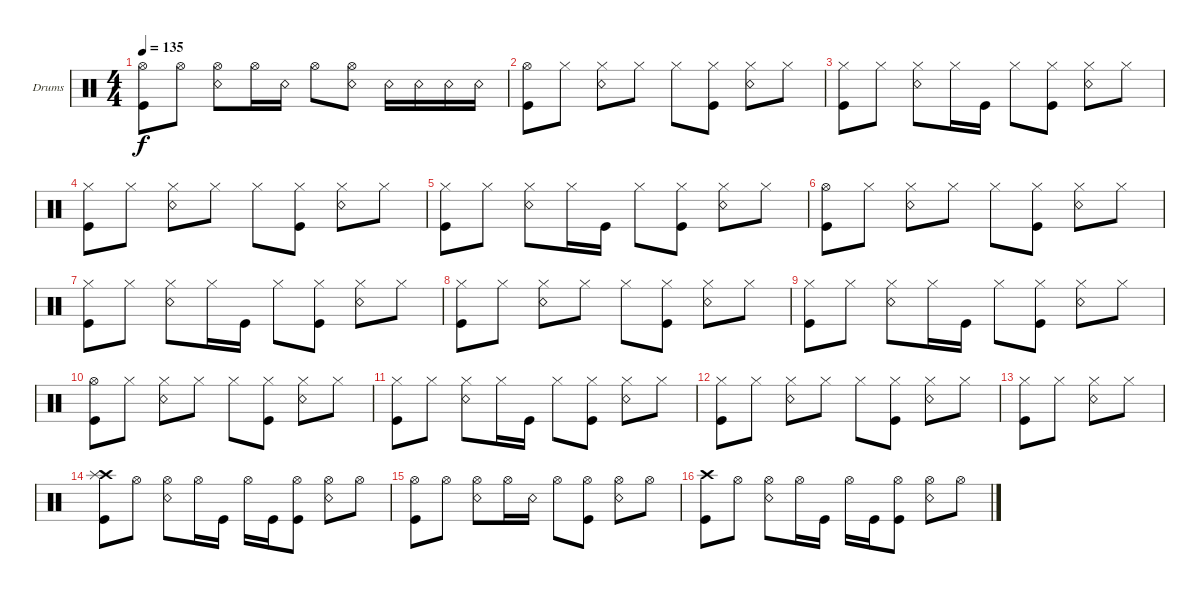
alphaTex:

\defaultSystemsLayout 4
\bracketExtendMode groupsimilarinstruments
\firstSystemTrackNameOrientation horizontal
\otherSystemsTrackNameOrientation horizontal
\track ("Drumkit" "Drums") {instrument percussion}
\staff {score}
\articulation defaults
\ts (4 4)
\tempo 135
\clef neutral
\scale
0.333333
\ks c
("Kick (hit)" "Hi-Hat (open)").8{dy f} "Hi-Hat (open)".8 ("Snare (rim shot)" "Hi-Hat (open)").8 "Hi-Hat (open)".16 "Snare (rim shot)".16 "Hi-Hat (open)".8 ("Hi-Hat (open)" "Snare (rim shot)").8 "Snare (rim shot)".16 "Snare (rim shot)".16 "Snare (rim shot)".16 "Snare (rim shot)".16 |
\scale
0.333333 ("Kick (hit)" "Hi-Hat (open)").8 "Hi-Hat (closed)".8 ("Hi-Hat (closed)" "Snare (rim shot)").8 "Hi-Hat (closed)".8 "Hi-Hat (closed)".8 ("Hi-Hat (closed)" "Kick (hit)").8 ("Hi-Hat (closed)" "Snare (rim shot)").8 "Hi-Hat (closed)".8 |
\scale
0.333333 ("Hi-Hat (closed)" "Kick (hit)").8 "Hi-Hat (closed)".8 ("Hi-Hat (closed)" "Snare (rim shot)").8 "Hi-Hat (closed)".16 "Kick (hit)".16 "Hi-Hat (closed)".8 ("Kick (hit)" "Hi-Hat (closed)").8 ("Snare (rim shot)" "Hi-Hat (closed)").8 "Hi-Hat (closed)".8 |
\scale
0.333333 ("Kick (hit)" "Hi-Hat (closed)").8 "Hi-Hat (closed)".8 ("Hi-Hat (closed)" "Snare (rim shot)").8 "Hi-Hat (closed)".8 "Hi-Hat (closed)".8 ("Hi-Hat (closed)" "Kick (hit)").8 ("Hi-Hat (closed)" "Snare (rim shot)").8 "Hi-Hat (closed)".8 |
\scale
0.333333 ("Hi-Hat (closed)" "Kick (hit)").8 "Hi-Hat (closed)".8 ("Hi-Hat (closed)" "Snare (rim shot)").8 "Hi-Hat (closed)".16 "Kick (hit)".16 "Hi-Hat (closed)".8 ("Kick (hit)" "Hi-Hat (closed)").8 ("Snare (rim shot)" "Hi-Hat (closed)").8 "Hi-Hat (closed)".8 |
\scale
0.333333 ("Kick (hit)" "Hi-Hat (open)").8 "Hi-Hat (closed)".8 ("Hi-Hat (closed)" "Snare (rim shot)").8 "Hi-Hat (closed)".8 "Hi-Hat (closed)".8 ("Hi-Hat (closed)" "Kick (hit)").8 ("Hi-Hat (closed)" "Snare (rim shot)").8 "Hi-Hat (closed)".8 |
\scale
0.333333 ("Hi-Hat (closed)" "Kick (hit)").8 "Hi-Hat (closed)".8 ("Hi-Hat (closed)" "Snare (rim shot)").8 "Hi-Hat (closed)".16 "Kick (hit)".16 "Hi-Hat (closed)".8 ("Kick (hit)" "Hi-Hat (closed)").8 ("Snare (rim shot)" "Hi-Hat (closed)").8 "Hi-Hat (closed)".8 |
\scale
0.333333 ("Kick (hit)" "Hi-Hat (closed)").8 "Hi-Hat (closed)".8 ("Hi-Hat (closed)" "Snare (rim shot)").8 "Hi-Hat (closed)".8 "Hi-Hat (closed)".8 ("Hi-Hat (closed)" "Kick (hit)").8 ("Hi-Hat (closed)" "Snare (rim shot)").8 "Hi-Hat (closed)".8 |
\scale
0.333333 ("Hi-Hat (closed)" "Kick (hit)").8 "Hi-Hat (closed)".8 ("Hi-Hat (closed)" "Snare (rim shot)").8 "Hi-Hat (closed)".16 "Kick (hit)".16 "Hi-Hat (closed)".8 ("Kick (hit)" "Hi-Hat (closed)").8 ("Snare (rim shot)" "Hi-Hat (closed)").8 "Hi-Hat (closed)".8 |
\scale
0.333333 ("Kick (hit)" "Hi-Hat (open)").8 "Hi-Hat (closed)".8 ("Hi-Hat (closed)" "Snare (rim shot)").8 "Hi-Hat (closed)".8 "Hi-Hat (closed)".8 ("Hi-Hat (closed)" "Kick (hit)").8 ("Hi-Hat (closed)" "Snare (rim shot)").8 "Hi-Hat (closed)".8 |
\scale
0.333333 ("Hi-Hat (closed)" "Kick (hit)").8 "Hi-Hat (closed)".8 ("Hi-Hat (closed)" "Snare (rim shot)").8 "Hi-Hat (closed)".16 "Kick (hit)".16 "Hi-Hat (closed)".8 ("Kick (hit)" "Hi-Hat (closed)").8 ("Snare (rim shot)" "Hi-Hat (closed)").8 "Hi-Hat (closed)".8 |
\scale
0.333333 ("Kick (hit)" "Hi-Hat (closed)").8 "Hi-Hat (closed)".8 ("Hi-Hat (closed)" "Snare (rim shot)").8 "Hi-Hat (closed)".8 "Hi-Hat (closed)".8 ("Hi-Hat (closed)" "Kick (hit)").8 ("Hi-Hat (closed)" "Snare (rim shot)").8 "Hi-Hat (closed)".8 |
\scale
0.333333 ("Hi-Hat (closed)" "Kick (hit)").8 "Hi-Hat (closed)".8 ("Hi-Hat (closed)" "Snare (rim shot)").8 "Hi-Hat (closed)".8 |
\scale
0.333333 ("Kick (hit)" "Crash high (hit)" "Splash (hit)").8 "Hi-Hat (open)".8 ("Snare (rim shot)" "Hi-Hat (open)").8 "Hi-Hat (open)".16 "Kick (hit)".16 "Hi-Hat (open)".16 "Kick (hit)".16 ("Kick (hit)" "Hi-Hat (open)").8 ("Snare (rim shot)" "Hi-Hat (open)").8 "Hi-Hat (open)".8 |
\scale
0.333333 ("Kick (hit)" "Hi-Hat (open)").8 "Hi-Hat (open)".8 ("Snare (rim shot)" "Hi-Hat (open)").8 "Hi-Hat (open)".16 "Snare (rim shot)".16 "Hi-Hat (open)".8 ("Hi-Hat (open)" "Kick (hit)").8 ("Snare (rim shot)" "Hi-Hat (open)").8 "Hi-Hat (open)".8 |
\scale
0.333333 ("Kick (hit)" "Crash high (hit)").8 "Hi-Hat (open)".8 ("Snare (rim shot)" "Hi-Hat (open)").8 "Hi-Hat (open)".16 "Kick (hit)".16 "Hi-Hat (open)".16 "Kick (hit)".16 ("Kick (hit)" "Hi-Hat (open)").8 ("Snare (rim shot)" "Hi-Hat (open)").8 "Hi-Hat (open)".8
